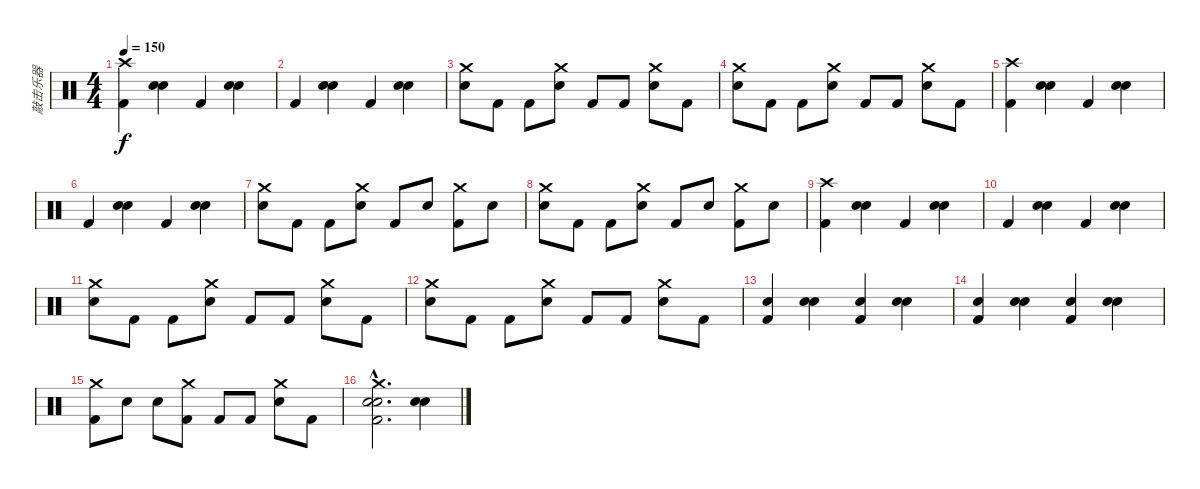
\track ("敲击乐器" "敲击乐器") {instrument percussion}
\staff {score}
\articulation defaults
\ts (4 4)
\tempo 150
\clef neutral
\ks c
("Kick (hit) 2" "Crash high (hit)").4{dy f} ("Snare (hit) 2" "Electric Snare (hit)").4 "Kick (hit) 2".4 ("Snare (hit) 2" "Electric Snare (hit)").4 |
"Kick (hit) 2".4 ("Snare (hit) 2" "Electric Snare (hit)").4 "Kick (hit) 2".4 ("Snare (hit) 2" "Electric Snare (hit)").4 |
("Snare (hit) 2" "Crash medium (hit)").8 "Kick (hit) 2".8 "Kick (hit) 2".8 ("Snare (hit) 2" "Crash medium (hit)").8 "Kick (hit) 2".8 "Kick (hit) 2".8 ("Snare (hit) 2" "Crash medium (hit)").8 "Kick (hit) 2".8 |
("Snare (hit) 2" "Crash medium (hit)").8 "Kick (hit) 2".8 "Kick (hit) 2".8 ("Snare (hit) 2" "Crash medium (hit)").8 "Kick (hit) 2".8 "Kick (hit) 2".8 ("Snare (hit) 2" "Crash medium (hit)").8 "Kick (hit) 2".8 |
("Kick (hit) 2" "Crash high (hit)").4 ("Snare (hit) 2" "Electric Snare (hit)").4 "Kick (hit) 2".4 ("Snare (hit) 2" "Electric Snare (hit)").4 |
"Kick (hit) 2".4 ("Snare (hit) 2" "Electric Snare (hit)").4 "Kick (hit) 2".4 ("Snare (hit) 2" "Electric Snare (hit)").4 |
("Snare (hit) 2" "Crash medium (hit)").8 "Kick (hit) 2".8 "Kick (hit) 2".8 ("Snare (hit) 2" "Crash medium (hit)").8 "Kick (hit) 2".8 "Snare (hit) 2".8 ("Kick (hit) 2" "Crash medium (hit)").8 "Snare (hit) 2".8 |
("Snare (hit) 2" "Crash medium (hit)").8 "Kick (hit) 2".8 "Kick (hit) 2".8 ("Snare (hit) 2" "Crash medium (hit)").8 "Kick (hit) 2".8 "Snare (hit) 2".8 ("Kick (hit) 2" "Crash medium (hit)").8 "Snare (hit) 2".8 |
("Kick (hit) 2" "Crash high (hit)").4 ("Snare (hit) 2" "Electric Snare (hit)").4 "Kick (hit) 2".4 ("Snare (hit) 2" "Electric Snare (hit)").4 |
"Kick (hit) 2".4 ("Snare (hit) 2" "Electric Snare (hit)").4 "Kick (hit) 2".4 ("Snare (hit) 2" "Electric Snare (hit)").4 |
("Snare (hit) 2" "Crash medium (hit)").8 "Kick (hit) 2".8 "Kick (hit) 2".8 ("Snare (hit) 2" "Crash medium (hit)").8 "Kick (hit) 2".8 "Kick (hit) 2".8 ("Snare (hit) 2" "Crash medium (hit)").8 "Kick (hit) 2".8 |
("Snare (hit) 2" "Crash medium (hit)").8 "Kick (hit) 2".8 "Kick (hit) 2".8 ("Snare (hit) 2" "Crash medium (hit)").8 "Kick (hit) 2".8 "Kick (hit) 2".8 ("Snare (hit) 2" "Crash medium (hit)").8 "Kick (hit) 2".8 |
("Kick (hit) 2" "Electric Snare (hit)").4 ("Snare (hit) 2" "Electric Snare (hit)").4 ("Kick (hit) 2" "Electric Snare (hit)").4 ("Snare (hit) 2" "Electric Snare (hit)").4 |
("Kick (hit) 2" "Electric Snare (hit)").4 ("Snare (hit) 2" "Electric Snare (hit)").4 ("Kick (hit) 2" "Electric Snare (hit)").4 ("Snare (hit) 2" "Electric Snare (hit)").4 |
("Kick (hit) 2" "Crash medium (hit)").8 "Snare (hit) 2".8 "Snare (hit) 2".8 ("Kick (hit) 2" "Crash medium (hit)").8 "Kick (hit) 2".8 "Kick (hit) 2".8 ("Snare (hit) 2" "Crash medium (hit)").8 "Kick (hit) 2".8 |
("Kick (hit) 2"{hac} "Crash medium (hit)"{hac} "Electric Snare (hit)"{hac} "Snare (hit) 2"{hac}).2{d} ("Snare (hit) 2" "Electric Snare (hit)").4
